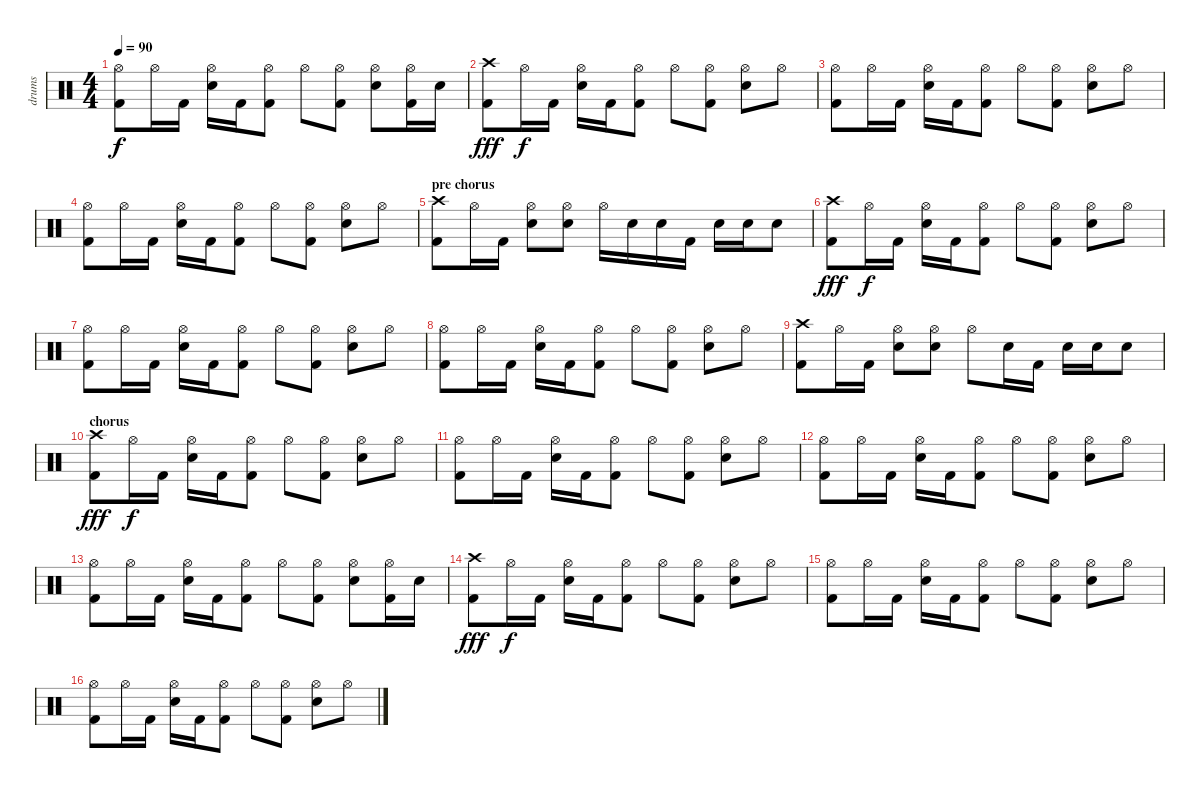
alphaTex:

\track ("drums" "drums") {instrument percussion}
\staff {score}
\articulation defaults
\ts (4 4)
\tempo 90
\clef neutral
\ks c
("Hi-Hat (open)" "Kick (hit) 2").8{dy f} "Hi-Hat (open)".16 "Kick (hit) 2".16 ("Hi-Hat (open)" "Electric Snare (hit)").16 "Kick (hit) 2".16 ("Hi-Hat (open)" "Kick (hit) 2").8 "Hi-Hat (open)".8 ("Hi-Hat (open)" "Kick (hit) 2").8 ("Hi-Hat (open)" "Electric Snare (hit)").8 ("Hi-Hat (open)" "Kick (hit) 2").16 "Electric Snare (hit)".16 |
("Crash high (hit)" "Kick (hit) 2").8{dy fff} "Hi-Hat (open)".16{dy f} "Kick (hit) 2".16 ("Hi-Hat (open)" "Electric Snare (hit)").16 "Kick (hit) 2".16 ("Hi-Hat (open)" "Kick (hit) 2").8 "Hi-Hat (open)".8 ("Hi-Hat (open)" "Kick (hit) 2").8 ("Hi-Hat (open)" "Electric Snare (hit)").8 "Hi-Hat (open)".8 |
("Hi-Hat (open)" "Kick (hit) 2").8 "Hi-Hat (open)".16 "Kick (hit) 2".16 ("Hi-Hat (open)" "Electric Snare (hit)").16 "Kick (hit) 2".16 ("Hi-Hat (open)" "Kick (hit) 2").8 "Hi-Hat (open)".8 ("Hi-Hat (open)" "Kick (hit) 2").8 ("Hi-Hat (open)" "Electric Snare (hit)").8 "Hi-Hat (open)".8 |
("Hi-Hat (open)" "Kick (hit) 2").8 "Hi-Hat (open)".16 "Kick (hit) 2".16 ("Hi-Hat (open)" "Electric Snare (hit)").16 "Kick (hit) 2".16 ("Hi-Hat (open)" "Kick (hit) 2").8 "Hi-Hat (open)".8 ("Hi-Hat (open)" "Kick (hit) 2").8 ("Hi-Hat (open)" "Electric Snare (hit)").8 "Hi-Hat (open)".8 |
\section ("" "pre chorus")
("Crash high (hit)" "Kick (hit) 2").8 "Hi-Hat (open)".16 "Kick (hit) 2".16 ("Hi-Hat (open)" "Electric Snare (hit)").8 ("Hi-Hat (open)" "Electric Snare (hit)").8 "Hi-Hat (open)".16 "Electric Snare (hit)".16 "Electric Snare (hit)".16 "Kick (hit) 2".16 "Electric Snare (hit)".16 "Electric Snare (hit)".16 "Electric Snare (hit)".8 |
("Crash high (hit)" "Kick (hit) 2").8{dy fff} "Hi-Hat (open)".16{dy f} "Kick (hit) 2".16 ("Hi-Hat (open)" "Electric Snare (hit)").16 "Kick (hit) 2".16 ("Hi-Hat (open)" "Kick (hit) 2").8 "Hi-Hat (open)".8 ("Hi-Hat (open)" "Kick (hit) 2").8 ("Hi-Hat (open)" "Electric Snare (hit)").8 "Hi-Hat (open)".8 |
("Hi-Hat (open)" "Kick (hit) 2").8 "Hi-Hat (open)".16 "Kick (hit) 2".16 ("Hi-Hat (open)" "Electric Snare (hit)").16 "Kick (hit) 2".16 ("Hi-Hat (open)" "Kick (hit) 2").8 "Hi-Hat (open)".8 ("Hi-Hat (open)" "Kick (hit) 2").8 ("Hi-Hat (open)" "Electric Snare (hit)").8 "Hi-Hat (open)".8 |
("Hi-Hat (open)" "Kick (hit) 2").8 "Hi-Hat (open)".16 "Kick (hit) 2".16 ("Hi-Hat (open)" "Electric Snare (hit)").16 "Kick (hit) 2".16 ("Hi-Hat (open)" "Kick (hit) 2").8 "Hi-Hat (open)".8 ("Hi-Hat (open)" "Kick (hit) 2").8 ("Hi-Hat (open)" "Electric Snare (hit)").8 "Hi-Hat (open)".8 |
("Crash high (hit)" "Kick (hit) 2").8 "Hi-Hat (open)".16 "Kick (hit) 2".16 ("Hi-Hat (open)" "Electric Snare (hit)").8 ("Hi-Hat (open)" "Electric Snare (hit)").8 "Hi-Hat (open)".8 "Electric Snare (hit)".16 "Kick (hit) 2".16 "Electric Snare (hit)".16 "Electric Snare (hit)".16 "Electric Snare (hit)".8 |
\section ("" "chorus")
("Crash high (hit)" "Kick (hit) 2").8{dy fff} "Hi-Hat (open)".16{dy f} "Kick (hit) 2".16 ("Hi-Hat (open)" "Electric Snare (hit)").16 "Kick (hit) 2".16 ("Hi-Hat (open)" "Kick (hit) 2").8 "Hi-Hat (open)".8 ("Hi-Hat (open)" "Kick (hit) 2").8 ("Hi-Hat (open)" "Electric Snare (hit)").8 "Hi-Hat (open)".8 |
("Hi-Hat (open)" "Kick (hit) 2").8 "Hi-Hat (open)".16 "Kick (hit) 2".16 ("Hi-Hat (open)" "Electric Snare (hit)").16 "Kick (hit) 2".16 ("Hi-Hat (open)" "Kick (hit) 2").8 "Hi-Hat (open)".8 ("Hi-Hat (open)" "Kick (hit) 2").8 ("Hi-Hat (open)" "Electric Snare (hit)").8 "Hi-Hat (open)".8 |
("Hi-Hat (open)" "Kick (hit) 2").8 "Hi-Hat (open)".16 "Kick (hit) 2".16 ("Hi-Hat (open)" "Electric Snare (hit)").16 "Kick (hit) 2".16 ("Hi-Hat (open)" "Kick (hit) 2").8 "Hi-Hat (open)".8 ("Hi-Hat (open)" "Kick (hit) 2").8 ("Hi-Hat (open)" "Electric Snare (hit)").8 "Hi-Hat (open)".8 |
("Hi-Hat (open)" "Kick (hit) 2").8 "Hi-Hat (open)".16 "Kick (hit) 2".16 ("Hi-Hat (open)" "Electric Snare (hit)").16 "Kick (hit) 2".16 ("Hi-Hat (open)" "Kick (hit) 2").8 "Hi-Hat (open)".8 ("Hi-Hat (open)" "Kick (hit) 2").8 ("Hi-Hat (open)" "Electric Snare (hit)").8 ("Hi-Hat (open)" "Kick (hit) 2").16 "Electric Snare (hit)".16 |
("Crash high (hit)" "Kick (hit) 2").8{dy fff} "Hi-Hat (open)".16{dy f} "Kick (hit) 2".16 ("Hi-Hat (open)" "Electric Snare (hit)").16 "Kick (hit) 2".16 ("Hi-Hat (open)" "Kick (hit) 2").8 "Hi-Hat (open)".8 ("Hi-Hat (open)" "Kick (hit) 2").8 ("Hi-Hat (open)" "Electric Snare (hit)").8 "Hi-Hat (open)".8 |
("Hi-Hat (open)" "Kick (hit) 2").8 "Hi-Hat (open)".16 "Kick (hit) 2".16 ("Hi-Hat (open)" "Electric Snare (hit)").16 "Kick (hit) 2".16 ("Hi-Hat (open)" "Kick (hit) 2").8 "Hi-Hat (open)".8 ("Hi-Hat (open)" "Kick (hit) 2").8 ("Hi-Hat (open)" "Electric Snare (hit)").8 "Hi-Hat (open)".8 |
("Hi-Hat (open)" "Kick (hit) 2").8 "Hi-Hat (open)".16 "Kick (hit) 2".16 ("Hi-Hat (open)" "Electric Snare (hit)").16 "Kick (hit) 2".16 ("Hi-Hat (open)" "Kick (hit) 2").8 "Hi-Hat (open)".8 ("Hi-Hat (open)" "Kick (hit) 2").8 ("Hi-Hat (open)" "Electric Snare (hit)").8 "Hi-Hat (open)".8
